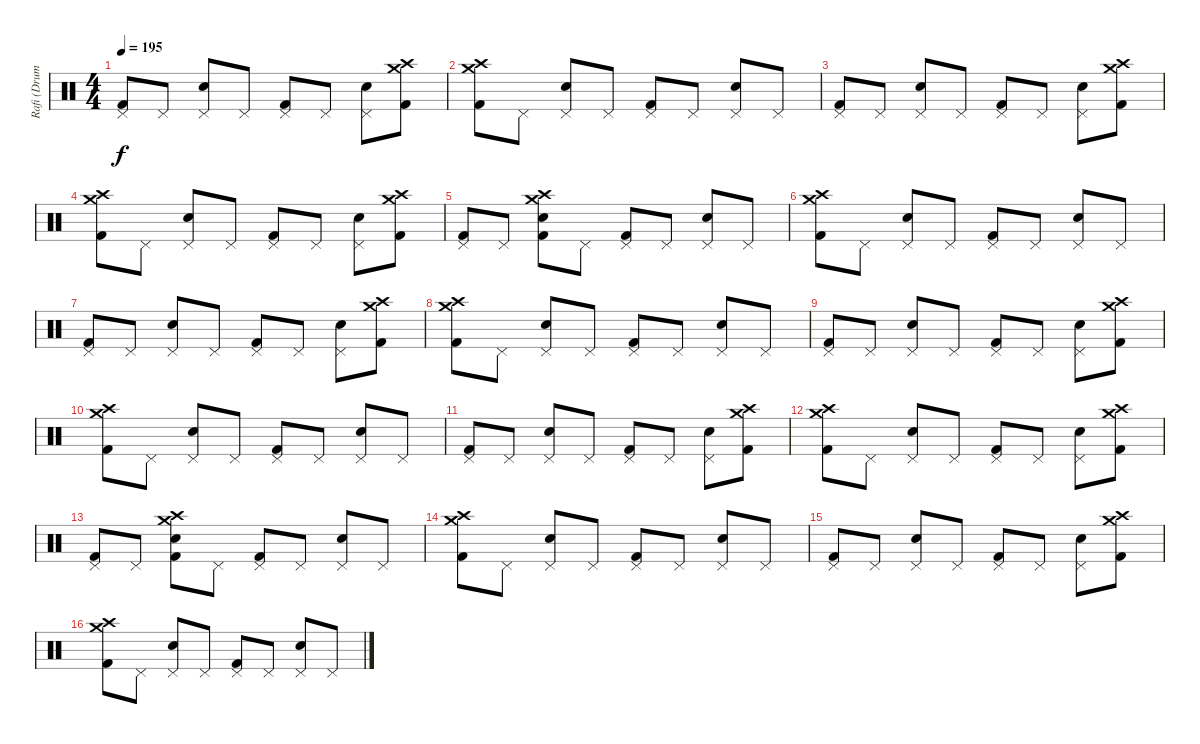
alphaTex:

\track ("Rafi (Drums)" "Rafi (Drum") {instrument percussion}
\staff {score}
\articulation defaults
\ts (4 4)
\tempo 195
\clef neutral
\ks c
("Pedal Hi-Hat (hit)" "Kick (hit) 2").8{dy f} "Pedal Hi-Hat (hit)".8 ("Pedal Hi-Hat (hit)" "Snare (hit) 2").8 "Pedal Hi-Hat (hit)".8 ("Pedal Hi-Hat (hit)" "Kick (hit) 2").8 "Pedal Hi-Hat (hit)".8 ("Pedal Hi-Hat (hit)" "Snare (hit) 2").8 ("Crash medium (hit)" "Crash high (hit)" "Kick (hit) 2").8 |
("Crash medium (hit)" "Crash high (hit)" "Kick (hit) 2").8 "Pedal Hi-Hat (hit)".8 ("Pedal Hi-Hat (hit)" "Snare (hit) 2").8 "Pedal Hi-Hat (hit)".8 ("Pedal Hi-Hat (hit)" "Kick (hit) 2").8 "Pedal Hi-Hat (hit)".8 ("Pedal Hi-Hat (hit)" "Snare (hit) 2").8 "Pedal Hi-Hat (hit)".8 |
("Pedal Hi-Hat (hit)" "Kick (hit) 2").8 "Pedal Hi-Hat (hit)".8 ("Pedal Hi-Hat (hit)" "Snare (hit) 2").8 "Pedal Hi-Hat (hit)".8 ("Pedal Hi-Hat (hit)" "Kick (hit) 2").8 "Pedal Hi-Hat (hit)".8 ("Pedal Hi-Hat (hit)" "Snare (hit) 2").8 ("Crash medium (hit)" "Crash high (hit)" "Kick (hit) 2").8 |
("Crash medium (hit)" "Crash high (hit)" "Kick (hit) 2").8 "Pedal Hi-Hat (hit)".8 ("Pedal Hi-Hat (hit)" "Snare (hit) 2").8 "Pedal Hi-Hat (hit)".8 ("Pedal Hi-Hat (hit)" "Kick (hit) 2").8 "Pedal Hi-Hat (hit)".8 ("Pedal Hi-Hat (hit)" "Snare (hit) 2").8 ("Crash medium (hit)" "Crash high (hit)" "Kick (hit) 2").8 |
("Pedal Hi-Hat (hit)" "Kick (hit) 2").8 "Pedal Hi-Hat (hit)".8 ("Crash medium (hit)" "Crash high (hit)" "Snare (hit) 2" "Kick (hit) 2").8 "Pedal Hi-Hat (hit)".8 ("Pedal Hi-Hat (hit)" "Kick (hit) 2").8 "Pedal Hi-Hat (hit)".8 ("Pedal Hi-Hat (hit)" "Snare (hit) 2").8 "Pedal Hi-Hat (hit)".8 |
("Crash medium (hit)" "Crash high (hit)" "Kick (hit) 2").8 "Pedal Hi-Hat (hit)".8 ("Pedal Hi-Hat (hit)" "Snare (hit) 2").8 "Pedal Hi-Hat (hit)".8 ("Pedal Hi-Hat (hit)" "Kick (hit) 2").8 "Pedal Hi-Hat (hit)".8 ("Pedal Hi-Hat (hit)" "Snare (hit) 2").8 "Pedal Hi-Hat (hit)".8 |
("Pedal Hi-Hat (hit)" "Kick (hit) 2").8 "Pedal Hi-Hat (hit)".8 ("Pedal Hi-Hat (hit)" "Snare (hit) 2").8 "Pedal Hi-Hat (hit)".8 ("Pedal Hi-Hat (hit)" "Kick (hit) 2").8 "Pedal Hi-Hat (hit)".8 ("Pedal Hi-Hat (hit)" "Snare (hit) 2").8 ("Crash medium (hit)" "Crash high (hit)" "Kick (hit) 2").8 |
("Crash medium (hit)" "Crash high (hit)" "Kick (hit) 2").8 "Pedal Hi-Hat (hit)".8 ("Pedal Hi-Hat (hit)" "Snare (hit) 2").8 "Pedal Hi-Hat (hit)".8 ("Pedal Hi-Hat (hit)" "Kick (hit) 2").8 "Pedal Hi-Hat (hit)".8 ("Pedal Hi-Hat (hit)" "Snare (hit) 2").8 "Pedal Hi-Hat (hit)".8 |
("Pedal Hi-Hat (hit)" "Kick (hit) 2").8 "Pedal Hi-Hat (hit)".8 ("Pedal Hi-Hat (hit)" "Snare (hit) 2").8 "Pedal Hi-Hat (hit)".8 ("Pedal Hi-Hat (hit)" "Kick (hit) 2").8 "Pedal Hi-Hat (hit)".8 ("Pedal Hi-Hat (hit)" "Snare (hit) 2").8 ("Crash medium (hit)" "Crash high (hit)" "Kick (hit) 2").8 |
("Crash medium (hit)" "Crash high (hit)" "Kick (hit) 2").8 "Pedal Hi-Hat (hit)".8 ("Pedal Hi-Hat (hit)" "Snare (hit) 2").8 "Pedal Hi-Hat (hit)".8 ("Pedal Hi-Hat (hit)" "Kick (hit) 2").8 "Pedal Hi-Hat (hit)".8 ("Pedal Hi-Hat (hit)" "Snare (hit) 2").8 "Pedal Hi-Hat (hit)".8 |
("Pedal Hi-Hat (hit)" "Kick (hit) 2").8 "Pedal Hi-Hat (hit)".8 ("Pedal Hi-Hat (hit)" "Snare (hit) 2").8 "Pedal Hi-Hat (hit)".8 ("Pedal Hi-Hat (hit)" "Kick (hit) 2").8 "Pedal Hi-Hat (hit)".8 ("Pedal Hi-Hat (hit)" "Snare (hit) 2").8 ("Crash medium (hit)" "Crash high (hit)" "Kick (hit) 2").8 |
("Crash medium (hit)" "Crash high (hit)" "Kick (hit) 2").8 "Pedal Hi-Hat (hit)".8 ("Pedal Hi-Hat (hit)" "Snare (hit) 2").8 "Pedal Hi-Hat (hit)".8 ("Pedal Hi-Hat (hit)" "Kick (hit) 2").8 "Pedal Hi-Hat (hit)".8 ("Pedal Hi-Hat (hit)" "Snare (hit) 2").8 ("Crash medium (hit)" "Crash high (hit)" "Kick (hit) 2").8 |
("Pedal Hi-Hat (hit)" "Kick (hit) 2").8 "Pedal Hi-Hat (hit)".8 ("Crash medium (hit)" "Crash high (hit)" "Snare (hit) 2" "Kick (hit) 2").8 "Pedal Hi-Hat (hit)".8 ("Pedal Hi-Hat (hit)" "Kick (hit) 2").8 "Pedal Hi-Hat (hit)".8 ("Pedal Hi-Hat (hit)" "Snare (hit) 2").8 "Pedal Hi-Hat (hit)".8 |
("Crash medium (hit)" "Crash high (hit)" "Kick (hit) 2").8 "Pedal Hi-Hat (hit)".8 ("Pedal Hi-Hat (hit)" "Snare (hit) 2").8 "Pedal Hi-Hat (hit)".8 ("Pedal Hi-Hat (hit)" "Kick (hit) 2").8 "Pedal Hi-Hat (hit)".8 ("Pedal Hi-Hat (hit)" "Snare (hit) 2").8 "Pedal Hi-Hat (hit)".8 |
("Pedal Hi-Hat (hit)" "Kick (hit) 2").8 "Pedal Hi-Hat (hit)".8 ("Pedal Hi-Hat (hit)" "Snare (hit) 2").8 "Pedal Hi-Hat (hit)".8 ("Pedal Hi-Hat (hit)" "Kick (hit) 2").8 "Pedal Hi-Hat (hit)".8 ("Pedal Hi-Hat (hit)" "Snare (hit) 2").8 ("Crash medium (hit)" "Crash high (hit)" "Kick (hit) 2").8 |
("Crash medium (hit)" "Crash high (hit)" "Kick (hit) 2").8 "Pedal Hi-Hat (hit)".8 ("Pedal Hi-Hat (hit)" "Snare (hit) 2").8 "Pedal Hi-Hat (hit)".8 ("Pedal Hi-Hat (hit)" "Kick (hit) 2").8 "Pedal Hi-Hat (hit)".8 ("Pedal Hi-Hat (hit)" "Snare (hit) 2").8 "Pedal Hi-Hat (hit)".8
